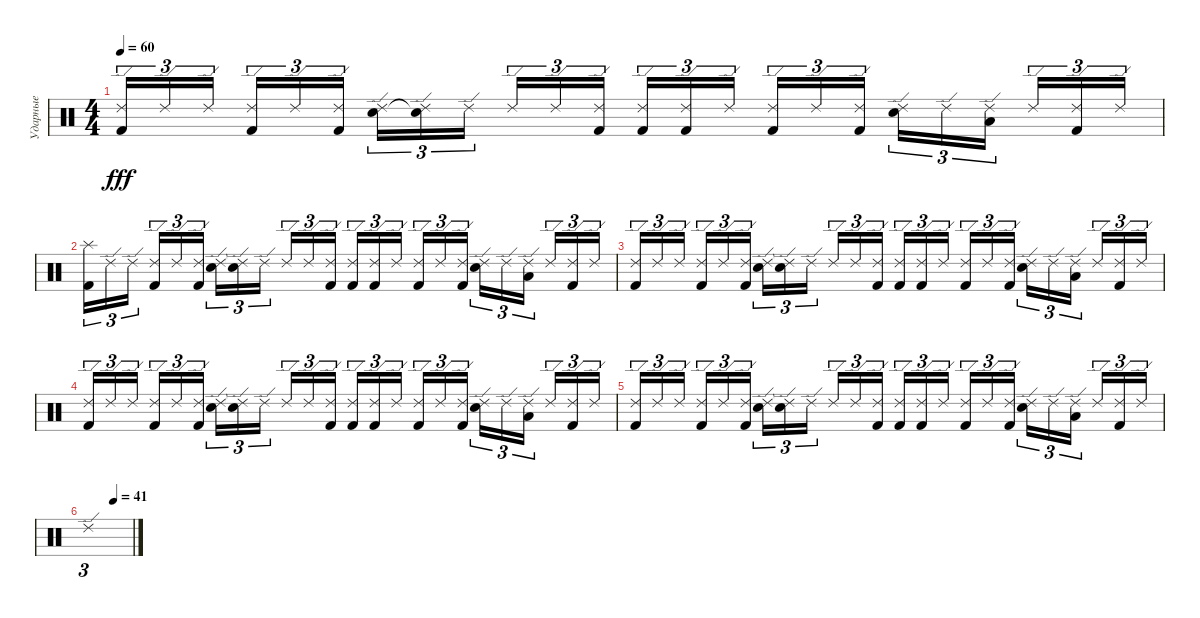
\track ("Ударные" "Ударные") {instrument percussion}
\staff {score}
\articulation defaults
\ts (4 4)
\tempo 60
\clef neutral
\ks c
("Kick (hit) 2" "Ride (edge) 2").16{tu (3 2) dy fff} "Ride (edge) 2".16{tu (3 2)} "Ride (edge) 2".16{tu (3 2) beam splitsecondary} ("Kick (hit) 2" "Ride (edge) 2").16{tu (3 2)} "Ride (edge) 2".16{tu (3 2)} ("Kick (hit) 2" "Ride (edge) 2").16{tu (3 2)} ("Electric Snare (hit)" "Ride (edge) 2").16{tu (3 2)} ("Snare (hit)"{t} "Ride (edge) 2").16{tu (3 2)} "Ride (edge) 2".16{tu (3 2) beam splitsecondary} "Ride (edge) 2".16{tu (3 2)} "Ride (edge) 2".16{tu (3 2)} ("Kick (hit) 2" "Ride (edge) 2").16{tu (3 2)} ("Kick (hit) 2" "Ride (edge) 2").16{tu (3 2)} ("Kick (hit) 2" "Ride (edge) 2").16{tu (3 2)} "Ride (edge) 2".16{tu (3 2) beam splitsecondary} ("Kick (hit) 2" "Ride (edge) 2").16{tu (3 2)} "Ride (edge) 2".16{tu (3 2)} ("Kick (hit) 2" "Ride (edge) 2").16{tu (3 2)} ("Electric Snare (hit)" "Ride (edge) 2").16{tu (3 2)} "Ride (edge) 2".16{tu (3 2)} ("Low Floor Tom (hit)" "Ride (edge) 2").16{tu (3 2) beam splitsecondary} "Ride (edge) 2".16{tu (3 2)} ("Kick (hit) 2" "Ride (edge) 2").16{tu (3 2)} "Ride (edge) 2".16{tu (3 2)} |
("Kick (hit) 2" "Splash (hit)").16{tu (3 2)} "Ride (edge) 2".16{tu (3 2)} "Ride (edge) 2".16{tu (3 2) beam splitsecondary} ("Kick (hit) 2" "Ride (edge) 2").16{tu (3 2)} "Ride (edge) 2".16{tu (3 2)} ("Kick (hit) 2" "Ride (edge) 2").16{tu (3 2)} ("Electric Snare (hit)" "Ride (edge) 2").16{tu (3 2)} ("Snare (hit)"{t} "Ride (edge) 2").16{tu (3 2)} "Ride (edge) 2".16{tu (3 2) beam splitsecondary} "Ride (edge) 2".16{tu (3 2)} "Ride (edge) 2".16{tu (3 2)} ("Kick (hit) 2" "Ride (edge) 2").16{tu (3 2)} ("Kick (hit) 2" "Ride (edge) 2").16{tu (3 2)} ("Kick (hit) 2" "Ride (edge) 2").16{tu (3 2)} "Ride (edge) 2".16{tu (3 2) beam splitsecondary} ("Kick (hit) 2" "Ride (edge) 2").16{tu (3 2)} "Ride (edge) 2".16{tu (3 2)} ("Kick (hit) 2" "Ride (edge) 2").16{tu (3 2)} ("Electric Snare (hit)" "Ride (edge) 2").16{tu (3 2)} "Ride (edge) 2".16{tu (3 2)} ("Low Floor Tom (hit)" "Ride (edge) 2").16{tu (3 2) beam splitsecondary} "Ride (edge) 2".16{tu (3 2)} ("Kick (hit) 2" "Ride (edge) 2").16{tu (3 2)} "Ride (edge) 2".16{tu (3 2)} |
("Kick (hit) 2" "Ride (edge) 2").16{tu (3 2)} "Ride (edge) 2".16{tu (3 2)} "Ride (edge) 2".16{tu (3 2) beam splitsecondary} ("Kick (hit) 2" "Ride (edge) 2").16{tu (3 2)} "Ride (edge) 2".16{tu (3 2)} ("Kick (hit) 2" "Ride (edge) 2").16{tu (3 2)} ("Electric Snare (hit)" "Ride (edge) 2").16{tu (3 2)} ("Snare (hit)"{t} "Ride (edge) 2").16{tu (3 2)} "Ride (edge) 2".16{tu (3 2) beam splitsecondary} "Ride (edge) 2".16{tu (3 2)} "Ride (edge) 2".16{tu (3 2)} ("Kick (hit) 2" "Ride (edge) 2").16{tu (3 2)} ("Kick (hit) 2" "Ride (edge) 2").16{tu (3 2)} ("Kick (hit) 2" "Ride (edge) 2").16{tu (3 2)} "Ride (edge) 2".16{tu (3 2) beam splitsecondary} ("Kick (hit) 2" "Ride (edge) 2").16{tu (3 2)} "Ride (edge) 2".16{tu (3 2)} ("Kick (hit) 2" "Ride (edge) 2").16{tu (3 2)} ("Electric Snare (hit)" "Ride (edge) 2").16{tu (3 2)} "Ride (edge) 2".16{tu (3 2)} ("Low Floor Tom (hit)" "Ride (edge) 2").16{tu (3 2) beam splitsecondary} "Ride (edge) 2".16{tu (3 2)} ("Kick (hit) 2" "Ride (edge) 2").16{tu (3 2)} "Ride (edge) 2".16{tu (3 2)} |
("Kick (hit) 2" "Ride (edge) 2").16{tu (3 2)} "Ride (edge) 2".16{tu (3 2)} "Ride (edge) 2".16{tu (3 2) beam splitsecondary} ("Kick (hit) 2" "Ride (edge) 2").16{tu (3 2)} "Ride (edge) 2".16{tu (3 2)} ("Kick (hit) 2" "Ride (edge) 2").16{tu (3 2)} ("Electric Snare (hit)" "Ride (edge) 2").16{tu (3 2)} ("Snare (hit)"{t} "Ride (edge) 2").16{tu (3 2)} "Ride (edge) 2".16{tu (3 2) beam splitsecondary} "Ride (edge) 2".16{tu (3 2)} "Ride (edge) 2".16{tu (3 2)} ("Kick (hit) 2" "Ride (edge) 2").16{tu (3 2)} ("Kick (hit) 2" "Ride (edge) 2").16{tu (3 2)} ("Kick (hit) 2" "Ride (edge) 2").16{tu (3 2)} "Ride (edge) 2".16{tu (3 2) beam splitsecondary} ("Kick (hit) 2" "Ride (edge) 2").16{tu (3 2)} "Ride (edge) 2".16{tu (3 2)} ("Kick (hit) 2" "Ride (edge) 2").16{tu (3 2)} ("Electric Snare (hit)" "Ride (edge) 2").16{tu (3 2)} "Ride (edge) 2".16{tu (3 2)} ("Low Floor Tom (hit)" "Ride (edge) 2").16{tu (3 2) beam splitsecondary} "Ride (edge) 2".16{tu (3 2)} ("Kick (hit) 2" "Ride (edge) 2").16{tu (3 2)} "Ride (edge) 2".16{tu (3 2)} |
("Kick (hit) 2" "Ride (edge) 2").16{tu (3 2)} "Ride (edge) 2".16{tu (3 2)} "Ride (edge) 2".16{tu (3 2) beam splitsecondary} ("Kick (hit) 2" "Ride (edge) 2").16{tu (3 2)} "Ride (edge) 2".16{tu (3 2)} ("Kick (hit) 2" "Ride (edge) 2").16{tu (3 2)} ("Electric Snare (hit)" "Ride (edge) 2").16{tu (3 2)} ("Snare (hit)"{t} "Ride (edge) 2").16{tu (3 2)} "Ride (edge) 2".16{tu (3 2) beam splitsecondary} "Ride (edge) 2".16{tu (3 2)} "Ride (edge) 2".16{tu (3 2)} ("Kick (hit) 2" "Ride (edge) 2").16{tu (3 2)} ("Kick (hit) 2" "Ride (edge) 2").16{tu (3 2)} ("Kick (hit) 2" "Ride (edge) 2").16{tu (3 2)} "Ride (edge) 2".16{tu (3 2) beam splitsecondary} ("Kick (hit) 2" "Ride (edge) 2").16{tu (3 2)} "Ride (edge) 2".16{tu (3 2)} ("Kick (hit) 2" "Ride (edge) 2").16{tu (3 2)} ("Electric Snare (hit)" "Ride (edge) 2").16{tu (3 2)} "Ride (edge) 2".16{tu (3 2)} ("Low Floor Tom (hit)" "Ride (edge) 2").16{tu (3 2) beam splitsecondary} "Ride (edge) 2".16{tu (3 2)} ("Kick (hit) 2" "Ride (edge) 2").16{tu (3 2)} "Ride (edge) 2".16{tu (3 2)} |
\tempo (41 0.5833333333333334)
"Ride (edge) 2".1{tu (3 2)}
